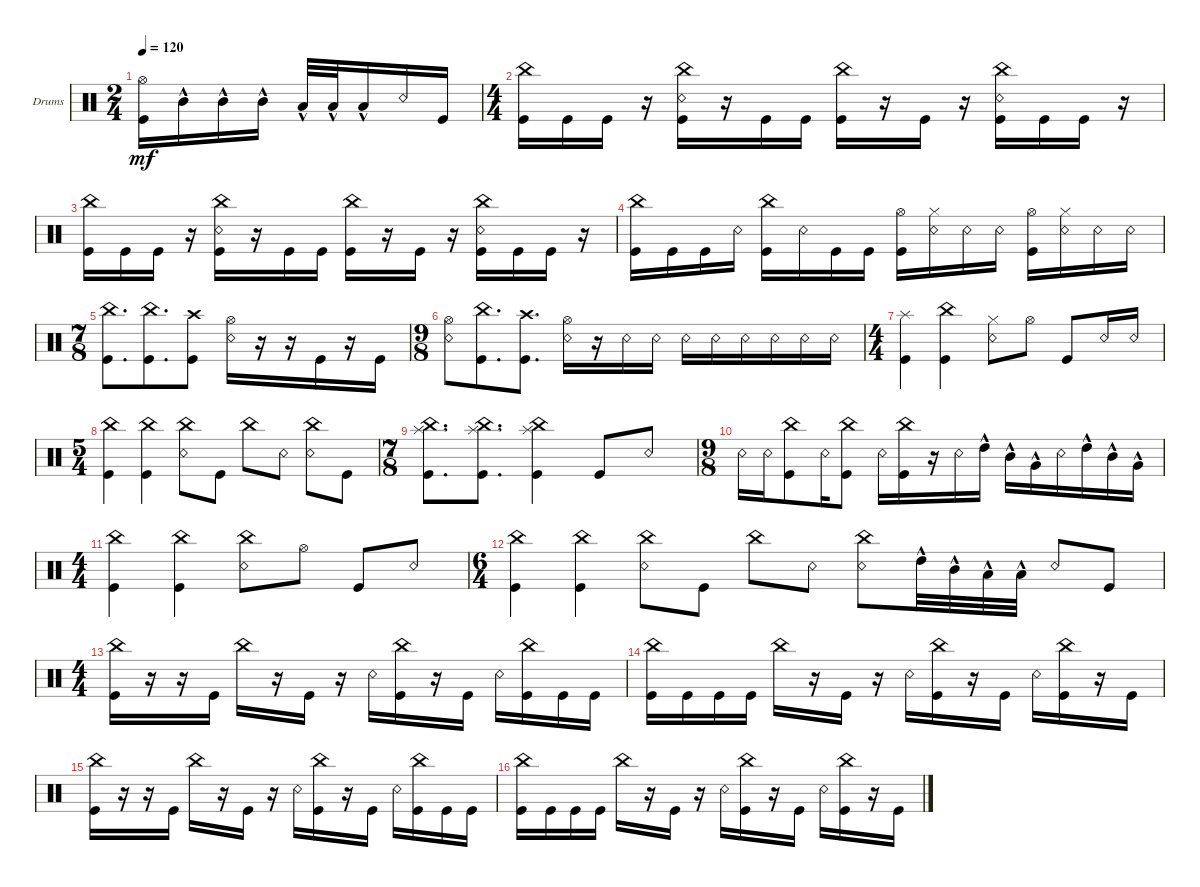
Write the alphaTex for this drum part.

\defaultSystemsLayout 4
\bracketExtendMode groupsimilarinstruments
\firstSystemTrackNameOrientation horizontal
\otherSystemsTrackNameOrientation horizontal
\track ("Drumkit" "Drums") {solo instrument percussion}
\staff {score}
\articulation defaults
\ts (2 4)
\tempo 120
\clef neutral
\ks c
("Kick (hit)" "Hi-Hat (open)").16{dy mf} "Mid Tom (hit)"{hac}.16 "Mid Tom (hit)"{hac}.16 "Mid Tom (hit)"{hac}.16 "Low Tom (hit)"{hac}.32 "Low Tom (hit)"{hac}.32 "Low Tom (hit)"{hac}.16 "Snare (rim shot)".16 "Kick (hit)".16 |
\ts (4 4)
("Kick (hit)" "China (hit)").16 "Kick (hit)".16 "Kick (hit)".16 r.16 ("Kick (hit)" "China (hit)" "Snare (rim shot)").16 r.16 "Kick (hit)".16 "Kick (hit)".16 ("Kick (hit)" "China (hit)").16 r.16 "Kick (hit)".16 r.16 ("Kick (hit)" "Snare (rim shot)" "China (hit)").16 "Kick (hit)".16 "Kick (hit)".16 r.16 |
("Kick (hit)" "China (hit)").16 "Kick (hit)".16 "Kick (hit)".16 r.16 ("Kick (hit)" "China (hit)" "Snare (rim shot)").16 r.16 "Kick (hit)".16 "Kick (hit)".16 ("Kick (hit)" "China (hit)").16 r.16 "Kick (hit)".16 r.16 ("Kick (hit)" "Snare (rim shot)" "China (hit)").16 "Kick (hit)".16 "Kick (hit)".16 r.16 |
("Kick (hit)" "China (hit)").16 "Kick (hit)".16 "Kick (hit)".16 "Snare (rim shot)".16 ("Kick (hit)" "China (hit)").16 "Snare (rim shot)".16 "Kick (hit)".16 "Kick (hit)".16 ("Kick (hit)" "Hi-Hat (open)").16 ("Snare (rim shot)" "Hi-Hat (closed)").16 "Snare (rim shot)".16 "Snare (rim shot)".16 ("Kick (hit)" "Hi-Hat (open)").16 ("Snare (rim shot)" "Hi-Hat (closed)").16 "Snare (rim shot)".16 "Snare (rim shot)".16 |
\ts (7 8)
("Kick (hit)" "China (hit)").8{d} ("Kick (hit)" "China (hit)").8{d} ("Kick (hit)" "Crash high (hit)").8 ("Snare (rim shot)" "Hi-Hat (open)").16 r.16 r.16 "Kick (hit)".16 r.16 "Kick (hit)".16 |
\ts (9 8)
("Snare (rim shot)" "Hi-Hat (open)").8 ("Kick (hit)" "China (hit)").8{d} ("Kick (hit)" "Crash high (hit)").8{d} ("Snare (rim shot)" "Hi-Hat (open)").16 r.16 "Snare (rim shot)".16 "Snare (rim shot)".16 "Snare (rim shot)".16 "Snare (rim shot)".16 "Snare (rim shot)".16 "Snare (rim shot)".16 "Snare (rim shot)".16 "Snare (rim shot)".16 |
\ts (4 4)
("Splash (hit)" "Kick (hit)").4 ("Kick (hit)" "China (hit)").4 ("Snare (rim shot)" "Hi-Hat (closed)").8 "Hi-Hat (open)".8 "Kick (hit)".8 "Snare (rim shot)".16 "Snare (rim shot)".16 |
\ts (5 4)
("China (hit)" "Kick (hit)").4 ("Kick (hit)" "China (hit)").4 ("Snare (rim shot)" "China (hit)").8 "Kick (hit)".8 "China (hit)".8 "Snare (rim shot)".8 ("Snare (rim shot)" "China (hit)").8 "Kick (hit)".8 |
\ts (7 8)
("China (hit)" "Splash (hit)" "Kick (hit)").8{d} ("Splash (hit)" "China (hit)" "Kick (hit)").8{d} ("Splash (hit)" "China (hit)" "Kick (hit)").4 "Kick (hit)".8 "Snare (rim shot)".8 |
\ts (9 8)
"Snare (rim shot)".16 "Snare (rim shot)".16 ("China (hit)" "Kick (hit)").8 "Snare (rim shot)".16 ("China (hit)" "Kick (hit)").8 "Snare (rim shot)".16 ("Kick (hit)" "China (hit)").16 r.16 "Snare (rim shot)".16 "High Tom (hit)"{hac}.16 "Mid Tom (hit)"{hac}.16 "Very Low Tom (hit)"{hac}.16 "Snare (rim shot)".16 "High Tom (hit)"{hac}.16 "Mid Tom (hit)"{hac}.16 "Very Low Tom (hit)"{hac}.16 |
\ts (4 4)
("Kick (hit)" "China (hit)").4 ("Kick (hit)" "China (hit)").4 ("Snare (rim shot)" "China (hit)").8 "Hi-Hat (open)".8 "Kick (hit)".8 "Snare (rim shot)".8 |
\ts (6 4)
\scale
0.381903 ("China (hit)" "Kick (hit)").4 ("Kick (hit)" "China (hit)").4 ("Snare (rim shot)" "China (hit)").8 "Kick (hit)".8 "China (hit)".8 "Snare (rim shot)".8 ("Snare (rim shot)" "China (hit)").8 "High Tom (hit)"{hac}.32 "Mid Tom (hit)"{hac}.32 "Low Tom (hit)"{hac}.32 "Low Tom (hit)"{hac}.32 "Snare (rim shot)".8 "Kick (hit)".8 |
\ts (4 4)
("Kick (hit)" "China (hit)").16 r.16 r.16 "Kick (hit)".16 "China (hit)".16 r.16 "Kick (hit)".16 r.16 "Snare (rim shot)".16 ("Kick (hit)" "China (hit)").16 r.16 "Kick (hit)".16 "Snare (rim shot)".16 ("Kick (hit)" "China (hit)").16 "Kick (hit)".16 "Kick (hit)".16 |
("Kick (hit)" "China (hit)").16 "Kick (hit)".16 "Kick (hit)".16 "Kick (hit)".16 "China (hit)".16 r.16 "Kick (hit)".16 r.16 "Snare (rim shot)".16 ("Kick (hit)" "China (hit)").16 r.16 "Kick (hit)".16 "Snare (rim shot)".16 ("Kick (hit)" "China (hit)").16 r.16 "Kick (hit)".16 |
("Kick (hit)" "China (hit)").16 r.16 r.16 "Kick (hit)".16 "China (hit)".16 r.16 "Kick (hit)".16 r.16 "Snare (rim shot)".16 ("Kick (hit)" "China (hit)").16 r.16 "Kick (hit)".16 "Snare (rim shot)".16 ("Kick (hit)" "China (hit)").16 "Kick (hit)".16 "Kick (hit)".16 |
("Kick (hit)" "China (hit)").16 "Kick (hit)".16 "Kick (hit)".16 "Kick (hit)".16 "China (hit)".16 r.16 "Kick (hit)".16 r.16 "Snare (rim shot)".16 ("Kick (hit)" "China (hit)").16 r.16 "Kick (hit)".16 "Snare (rim shot)".16 ("Kick (hit)" "China (hit)").16 r.16 "Kick (hit)".16
